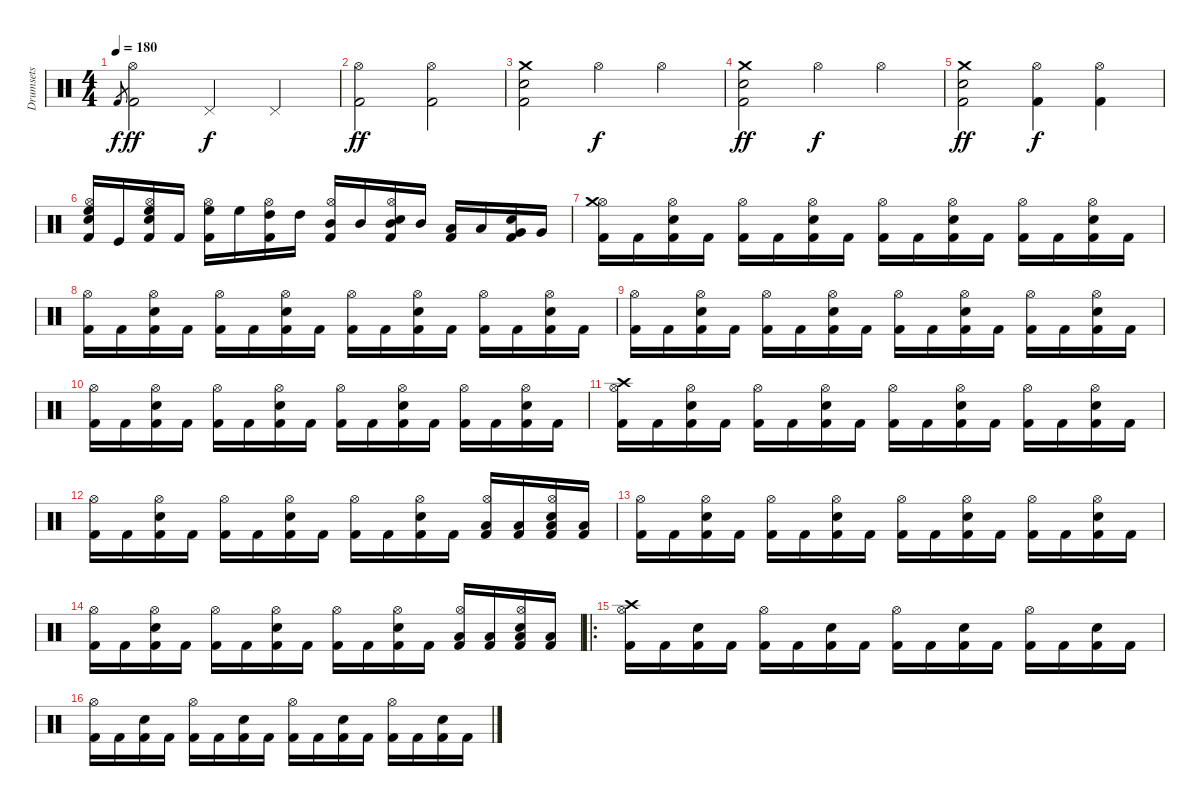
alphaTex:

\track ("Drumsets" "Drumsets") {instrument percussion}
\staff {score}
\articulation defaults
\ts (4 4)
\tempo 180
\clef neutral
\ks c "Kick (hit) 2".8{gr dy f}
("Kick (hit) 2" "Hi-Hat (open)").2{dy ff} "Pedal Hi-Hat (hit)".4{dy f} "Pedal Hi-Hat (hit)".4 |
("Kick (hit) 2" "Hi-Hat (open)").2{dy ff} ("Kick (hit) 2" "Hi-Hat (open)").2 |
("Kick (hit) 2" "Electric Snare (hit)" "Crash medium (hit)").2 "Hi-Hat (open)".4{dy f} "Hi-Hat (open)".4 |
("Kick (hit) 2" "Electric Snare (hit)" "Crash medium (hit)").2{dy ff} "Hi-Hat (open)".4{dy f} "Hi-Hat (open)".4 |
("Kick (hit) 2" "Electric Snare (hit)" "Crash medium (hit)").2{dy ff} ("Hi-Hat (open)" "Kick (hit) 2").4{dy f} ("Hi-Hat (open)" "Kick (hit) 2").4 |
("Kick (hit) 2" "Snare (hit) 2" "Hi-Hat (open)" "High Floor Tom (hit)").16 "Kick (hit)".16 ("Kick (hit) 2" "Snare (hit) 2" "Hi-Hat (open)" "High Floor Tom (hit)").16 "Kick (hit) 2".16 ("Kick (hit) 2" "Hi-Hat (open)" "High Floor Tom (hit)").16{balance 0} "High Floor Tom (hit)".16 ("Kick (hit) 2" "Hi-Hat (open)" "High Tom (hit)").16{balance 16} "High Tom (hit)".16 ("Kick (hit) 2" "Hi-Hat (open)" "Mid Tom (hit)").16{balance 0} "Mid Tom (hit)".16 ("Kick (hit) 2" "Snare (hit) 2" "Hi-Hat (open)" "Mid Tom (hit)").16{balance 16} "Mid Tom (hit)".16 ("Kick (hit) 2" "Low Tom (hit)").16{balance 0} "Low Tom (hit)".16 ("Kick (hit) 2" "Snare (hit) 2" "Very Low Tom (hit)").16{balance 16} "Very Low Tom (hit)".16 |
("Kick (hit) 2" "Hi-Hat (open)" "Crash medium (hit)").16 "Kick (hit) 2".16 ("Kick (hit) 2" "Electric Snare (hit)" "Hi-Hat (open)").16 "Kick (hit) 2".16 ("Kick (hit) 2" "Hi-Hat (open)").16 "Kick (hit) 2".16 ("Kick (hit) 2" "Electric Snare (hit)" "Hi-Hat (open)").16 "Kick (hit) 2".16 ("Kick (hit) 2" "Hi-Hat (open)").16 "Kick (hit) 2".16 ("Kick (hit) 2" "Electric Snare (hit)" "Hi-Hat (open)").16 "Kick (hit) 2".16 ("Kick (hit) 2" "Hi-Hat (open)").16 "Kick (hit) 2".16 ("Kick (hit) 2" "Electric Snare (hit)" "Hi-Hat (open)").16 "Kick (hit) 2".16 |
("Kick (hit) 2" "Hi-Hat (open)").16 "Kick (hit) 2".16 ("Kick (hit) 2" "Electric Snare (hit)" "Hi-Hat (open)").16 "Kick (hit) 2".16 ("Kick (hit) 2" "Hi-Hat (open)").16 "Kick (hit) 2".16 ("Kick (hit) 2" "Electric Snare (hit)" "Hi-Hat (open)").16 "Kick (hit) 2".16 ("Kick (hit) 2" "Hi-Hat (open)").16 "Kick (hit) 2".16 ("Kick (hit) 2" "Electric Snare (hit)" "Hi-Hat (open)").16 "Kick (hit) 2".16 ("Kick (hit) 2" "Hi-Hat (open)").16 "Kick (hit) 2".16 ("Kick (hit) 2" "Electric Snare (hit)" "Hi-Hat (open)").16 "Kick (hit) 2".16 |
("Kick (hit) 2" "Hi-Hat (open)").16 "Kick (hit) 2".16 ("Kick (hit) 2" "Electric Snare (hit)" "Hi-Hat (open)").16 "Kick (hit) 2".16 ("Kick (hit) 2" "Hi-Hat (open)").16 "Kick (hit) 2".16 ("Kick (hit) 2" "Electric Snare (hit)" "Hi-Hat (open)").16 "Kick (hit) 2".16 ("Kick (hit) 2" "Hi-Hat (open)").16 "Kick (hit) 2".16 ("Kick (hit) 2" "Electric Snare (hit)" "Hi-Hat (open)").16 "Kick (hit) 2".16 ("Kick (hit) 2" "Hi-Hat (open)").16 "Kick (hit) 2".16 ("Kick (hit) 2" "Electric Snare (hit)" "Hi-Hat (open)").16 "Kick (hit) 2".16 |
("Kick (hit) 2" "Hi-Hat (open)").16 "Kick (hit) 2".16 ("Kick (hit) 2" "Electric Snare (hit)" "Hi-Hat (open)").16 "Kick (hit) 2".16 ("Kick (hit) 2" "Hi-Hat (open)").16 "Kick (hit) 2".16 ("Kick (hit) 2" "Electric Snare (hit)" "Hi-Hat (open)").16 "Kick (hit) 2".16 ("Kick (hit) 2" "Hi-Hat (open)").16 "Kick (hit) 2".16 ("Kick (hit) 2" "Electric Snare (hit)" "Hi-Hat (open)").16 "Kick (hit) 2".16 ("Kick (hit) 2" "Hi-Hat (open)").16 "Kick (hit) 2".16 ("Kick (hit) 2" "Electric Snare (hit)" "Hi-Hat (open)").16 "Kick (hit) 2".16 |
("Kick (hit) 2" "Hi-Hat (open)" "Crash high (hit)").16 "Kick (hit) 2".16 ("Kick (hit) 2" "Electric Snare (hit)" "Hi-Hat (open)").16 "Kick (hit) 2".16 ("Kick (hit) 2" "Hi-Hat (open)").16 "Kick (hit) 2".16 ("Kick (hit) 2" "Electric Snare (hit)" "Hi-Hat (open)").16 "Kick (hit) 2".16 ("Kick (hit) 2" "Hi-Hat (open)").16 "Kick (hit) 2".16 ("Kick (hit) 2" "Electric Snare (hit)" "Hi-Hat (open)").16 "Kick (hit) 2".16 ("Kick (hit) 2" "Hi-Hat (open)").16 "Kick (hit) 2".16 ("Kick (hit) 2" "Electric Snare (hit)" "Hi-Hat (open)").16 "Kick (hit) 2".16 |
("Kick (hit) 2" "Hi-Hat (open)").16 "Kick (hit) 2".16 ("Kick (hit) 2" "Electric Snare (hit)" "Hi-Hat (open)").16 "Kick (hit) 2".16 ("Kick (hit) 2" "Hi-Hat (open)").16 "Kick (hit) 2".16 ("Kick (hit) 2" "Electric Snare (hit)" "Hi-Hat (open)").16 "Kick (hit) 2".16 ("Kick (hit) 2" "Hi-Hat (open)").16 "Kick (hit) 2".16 ("Kick (hit) 2" "Electric Snare (hit)" "Hi-Hat (open)").16 "Kick (hit) 2".16 ("Kick (hit) 2" "Hi-Hat (open)" "Low Tom (hit)").16 ("Kick (hit) 2" "Low Tom (hit)").16 ("Kick (hit) 2" "Electric Snare (hit)" "Hi-Hat (open)" "Low Tom (hit)").16 ("Kick (hit) 2" "Low Tom (hit)").16 |
("Kick (hit) 2" "Hi-Hat (open)").16 "Kick (hit) 2".16 ("Kick (hit) 2" "Electric Snare (hit)" "Hi-Hat (open)").16 "Kick (hit) 2".16 ("Kick (hit) 2" "Hi-Hat (open)").16 "Kick (hit) 2".16 ("Kick (hit) 2" "Electric Snare (hit)" "Hi-Hat (open)").16 "Kick (hit) 2".16 ("Kick (hit) 2" "Hi-Hat (open)").16 "Kick (hit) 2".16 ("Kick (hit) 2" "Electric Snare (hit)" "Hi-Hat (open)").16 "Kick (hit) 2".16 ("Kick (hit) 2" "Hi-Hat (open)").16 "Kick (hit) 2".16 ("Kick (hit) 2" "Electric Snare (hit)" "Hi-Hat (open)").16 "Kick (hit) 2".16 |
("Kick (hit) 2" "Hi-Hat (open)").16 "Kick (hit) 2".16 ("Kick (hit) 2" "Electric Snare (hit)" "Hi-Hat (open)").16 "Kick (hit) 2".16 ("Kick (hit) 2" "Hi-Hat (open)").16 "Kick (hit) 2".16 ("Kick (hit) 2" "Electric Snare (hit)" "Hi-Hat (open)").16 "Kick (hit) 2".16 ("Kick (hit) 2" "Hi-Hat (open)").16 "Kick (hit) 2".16 ("Kick (hit) 2" "Electric Snare (hit)" "Hi-Hat (open)").16 "Kick (hit) 2".16 ("Kick (hit) 2" "Hi-Hat (open)" "Low Tom (hit)").16 ("Kick (hit) 2" "Low Tom (hit)").16 ("Kick (hit) 2" "Electric Snare (hit)" "Hi-Hat (open)" "Low Tom (hit)").16 ("Kick (hit) 2" "Low Tom (hit)").16 |
\ro
("Kick (hit) 2" "Hi-Hat (open)" "Crash high (hit)").16 "Kick (hit) 2".16 ("Kick (hit) 2" "Electric Snare (hit)").16 "Kick (hit) 2".16 ("Kick (hit) 2" "Hi-Hat (open)").16 "Kick (hit) 2".16 ("Kick (hit) 2" "Electric Snare (hit)").16 "Kick (hit) 2".16 ("Kick (hit) 2" "Hi-Hat (open)").16 "Kick (hit) 2".16 ("Kick (hit) 2" "Electric Snare (hit)").16 "Kick (hit) 2".16 ("Kick (hit) 2" "Hi-Hat (open)").16 "Kick (hit) 2".16 ("Kick (hit) 2" "Electric Snare (hit)").16 "Kick (hit) 2".16 |
("Kick (hit) 2" "Hi-Hat (open)").16 "Kick (hit) 2".16 ("Kick (hit) 2" "Electric Snare (hit)").16 "Kick (hit) 2".16 ("Kick (hit) 2" "Hi-Hat (open)").16 "Kick (hit) 2".16 ("Kick (hit) 2" "Electric Snare (hit)").16 "Kick (hit) 2".16 ("Kick (hit) 2" "Hi-Hat (open)").16 "Kick (hit) 2".16 ("Kick (hit) 2" "Electric Snare (hit)").16 "Kick (hit) 2".16 ("Kick (hit) 2" "Hi-Hat (open)").16 "Kick (hit) 2".16 ("Kick (hit) 2" "Electric Snare (hit)").16 "Kick (hit) 2".16
